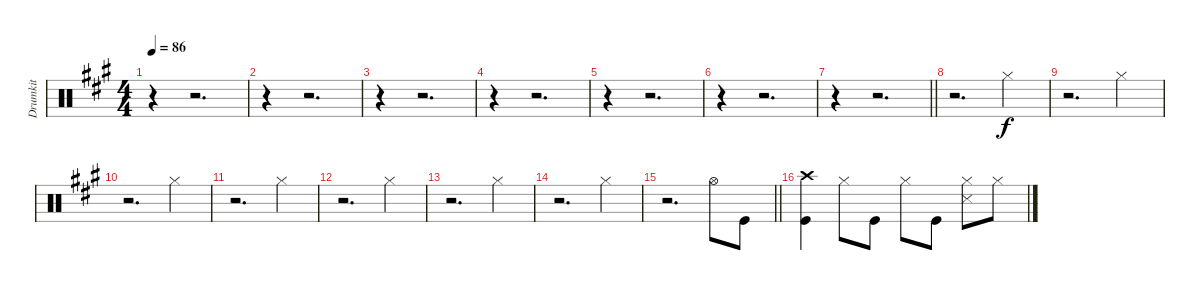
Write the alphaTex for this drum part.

\track ("Drumkit" "Drumkit") {instrument percussion}
\staff {score}
\articulation defaults
\ts (4 4)
\tempo 86
\clef neutral
\ks a
r.4{dy f} r.2{d} |
r.4 r.2{d} |
r.4 r.2{d} |
r.4 r.2{d} |
r.4 r.2{d} |
r.4 r.2{d} |
\barLineRight lightlight
r.4 r.2{d} |
r.2{d} "Hi-Hat (closed)".4 |
r.2{d} "Hi-Hat (closed)".4 |
r.2{d} "Hi-Hat (closed)".4 |
r.2{d} "Hi-Hat (closed)".4 |
r.2{d} "Hi-Hat (closed)".4 |
r.2{d} "Hi-Hat (closed)".4 |
r.2{d} "Hi-Hat (closed)".4 |
\barLineRight lightlight
r.2{d} "Hi-Hat (open)".8 "Kick (hit)".8 |
\section ("" "")
("Kick (hit)" "Crash high (hit)").4 "Hi-Hat (closed)".8 "Kick (hit)".8 "Hi-Hat (closed)".8 "Kick (hit)".8 ("Hi-Hat (closed)" "Snare (side stick) 3").8 "Hi-Hat (closed)".8
